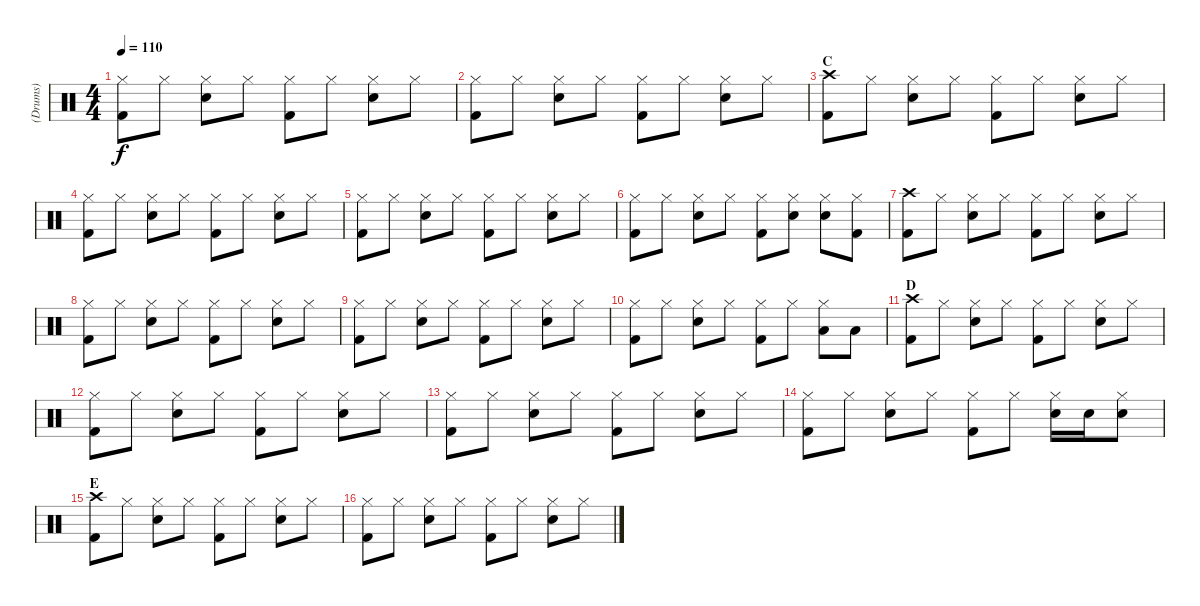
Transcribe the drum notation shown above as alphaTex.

\track ("(Drums)" "(Drums)") {instrument percussion}
\staff {score}
\articulation defaults
\ts (4 4)
\tempo 110
\clef neutral
\ks c
("Hi-Hat (closed)" "Kick (hit) 2").8{dy f} "Hi-Hat (closed)".8 ("Hi-Hat (closed)" "Electric Snare (hit)").8 "Hi-Hat (closed)".8 ("Hi-Hat (closed)" "Kick (hit) 2").8 "Hi-Hat (closed)".8 ("Hi-Hat (closed)" "Electric Snare (hit)").8 "Hi-Hat (closed)".8 |
("Hi-Hat (closed)" "Kick (hit) 2").8 "Hi-Hat (closed)".8 ("Hi-Hat (closed)" "Electric Snare (hit)").8 "Hi-Hat (closed)".8 ("Hi-Hat (closed)" "Kick (hit) 2").8 "Hi-Hat (closed)".8 ("Hi-Hat (closed)" "Electric Snare (hit)").8 "Hi-Hat (closed)".8 |
\section ("" "C")
("Crash high (hit)" "Kick (hit) 2").8 "Hi-Hat (closed)".8 ("Hi-Hat (closed)" "Electric Snare (hit)").8 "Hi-Hat (closed)".8 ("Hi-Hat (closed)" "Kick (hit) 2").8 "Hi-Hat (closed)".8 ("Hi-Hat (closed)" "Electric Snare (hit)").8 "Hi-Hat (closed)".8 |
("Hi-Hat (closed)" "Kick (hit) 2").8 "Hi-Hat (closed)".8 ("Hi-Hat (closed)" "Electric Snare (hit)").8 "Hi-Hat (closed)".8 ("Hi-Hat (closed)" "Kick (hit) 2").8 "Hi-Hat (closed)".8 ("Hi-Hat (closed)" "Electric Snare (hit)").8 "Hi-Hat (closed)".8 |
("Hi-Hat (closed)" "Kick (hit) 2").8 "Hi-Hat (closed)".8 ("Hi-Hat (closed)" "Electric Snare (hit)").8 "Hi-Hat (closed)".8 ("Hi-Hat (closed)" "Kick (hit) 2").8 "Hi-Hat (closed)".8 ("Hi-Hat (closed)" "Electric Snare (hit)").8 "Hi-Hat (closed)".8 |
("Hi-Hat (closed)" "Kick (hit) 2").8 "Hi-Hat (closed)".8 ("Hi-Hat (closed)" "Electric Snare (hit)").8 "Hi-Hat (closed)".8 ("Hi-Hat (closed)" "Kick (hit) 2").8 ("Hi-Hat (closed)" "Electric Snare (hit)").8 ("Hi-Hat (closed)" "Electric Snare (hit)").8 ("Hi-Hat (closed)" "Kick (hit) 2").8 |
("Crash high (hit)" "Kick (hit) 2").8 "Hi-Hat (closed)".8 ("Hi-Hat (closed)" "Electric Snare (hit)").8 "Hi-Hat (closed)".8 ("Hi-Hat (closed)" "Kick (hit) 2").8 "Hi-Hat (closed)".8 ("Hi-Hat (closed)" "Electric Snare (hit)").8 "Hi-Hat (closed)".8 |
("Hi-Hat (closed)" "Kick (hit) 2").8 "Hi-Hat (closed)".8 ("Hi-Hat (closed)" "Electric Snare (hit)").8 "Hi-Hat (closed)".8 ("Hi-Hat (closed)" "Kick (hit) 2").8 "Hi-Hat (closed)".8 ("Hi-Hat (closed)" "Electric Snare (hit)").8 "Hi-Hat (closed)".8 |
("Hi-Hat (closed)" "Kick (hit) 2").8 "Hi-Hat (closed)".8 ("Hi-Hat (closed)" "Electric Snare (hit)").8 "Hi-Hat (closed)".8 ("Hi-Hat (closed)" "Kick (hit) 2").8 "Hi-Hat (closed)".8 ("Hi-Hat (closed)" "Electric Snare (hit)").8 "Hi-Hat (closed)".8 |
("Hi-Hat (closed)" "Kick (hit) 2").8 "Hi-Hat (closed)".8 ("Hi-Hat (closed)" "Electric Snare (hit)").8 "Hi-Hat (closed)".8 ("Hi-Hat (closed)" "Kick (hit) 2").8 "Hi-Hat (closed)".8 ("Hi-Hat (closed)" "Low Tom (hit)").8 "Low Tom (hit)".8 |
\section ("" "D")
("Crash high (hit)" "Kick (hit) 2").8 "Hi-Hat (closed)".8 ("Hi-Hat (closed)" "Electric Snare (hit)").8 "Hi-Hat (closed)".8 ("Hi-Hat (closed)" "Kick (hit) 2").8 "Hi-Hat (closed)".8 ("Hi-Hat (closed)" "Electric Snare (hit)").8 "Hi-Hat (closed)".8 |
("Hi-Hat (closed)" "Kick (hit) 2").8 "Hi-Hat (closed)".8 ("Hi-Hat (closed)" "Electric Snare (hit)").8 "Hi-Hat (closed)".8 ("Hi-Hat (closed)" "Kick (hit) 2").8 "Hi-Hat (closed)".8 ("Hi-Hat (closed)" "Electric Snare (hit)").8 "Hi-Hat (closed)".8 |
("Hi-Hat (closed)" "Kick (hit) 2").8 "Hi-Hat (closed)".8 ("Hi-Hat (closed)" "Electric Snare (hit)").8 "Hi-Hat (closed)".8 ("Hi-Hat (closed)" "Kick (hit) 2").8 "Hi-Hat (closed)".8 ("Hi-Hat (closed)" "Electric Snare (hit)").8 "Hi-Hat (closed)".8 |
("Hi-Hat (closed)" "Kick (hit) 2").8 "Hi-Hat (closed)".8 ("Hi-Hat (closed)" "Electric Snare (hit)").8 "Hi-Hat (closed)".8 ("Hi-Hat (closed)" "Kick (hit) 2").8 "Hi-Hat (closed)".8 ("Hi-Hat (closed)" "Electric Snare (hit)").16 "Electric Snare (hit)".16 ("Hi-Hat (closed)" "Electric Snare (hit)").8 |
\section ("" "E")
("Crash high (hit)" "Kick (hit) 2").8 "Hi-Hat (closed)".8 ("Hi-Hat (closed)" "Electric Snare (hit)").8 "Hi-Hat (closed)".8 ("Hi-Hat (closed)" "Kick (hit) 2").8 "Hi-Hat (closed)".8 ("Hi-Hat (closed)" "Electric Snare (hit)").8 "Hi-Hat (closed)".8 |
("Hi-Hat (closed)" "Kick (hit) 2").8 "Hi-Hat (closed)".8 ("Hi-Hat (closed)" "Electric Snare (hit)").8 "Hi-Hat (closed)".8 ("Hi-Hat (closed)" "Kick (hit) 2").8 "Hi-Hat (closed)".8 ("Hi-Hat (closed)" "Electric Snare (hit)").8 "Hi-Hat (closed)".8
